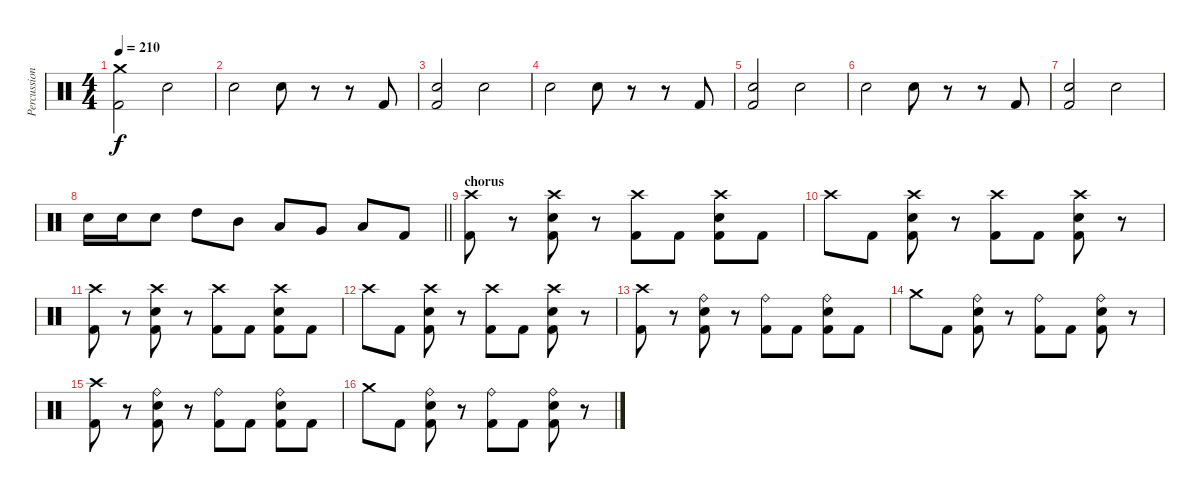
\track ("Percussion" "Percussion") {instrument percussion}
\staff {score}
\articulation defaults
\ts (4 4)
\tempo 210
\clef neutral
\ks c
("Crash medium (hit)" "Kick (hit) 2").2{dy f} "Electric Snare (hit)".2 |
"Electric Snare (hit)".2 "Electric Snare (hit)".8 r.8 r.8 "Kick (hit) 2".8 |
("Electric Snare (hit)" "Kick (hit) 2").2 "Electric Snare (hit)".2 |
"Electric Snare (hit)".2 "Electric Snare (hit)".8 r.8 r.8 "Kick (hit) 2".8 |
("Electric Snare (hit)" "Kick (hit) 2").2 "Electric Snare (hit)".2 |
"Electric Snare (hit)".2 "Electric Snare (hit)".8 r.8 r.8 "Kick (hit) 2".8 |
("Electric Snare (hit)" "Kick (hit) 2").2 "Electric Snare (hit)".2 |
\barLineRight lightlight "Electric Snare (hit)".16 "Electric Snare (hit)".16 "Electric Snare (hit)".8 "High Tom (hit)".8 "Mid Tom (hit)".8 "Low Tom (hit)".8 "Very Low Tom (hit)".8 "Low Floor Tom (hit)".8 "Kick (hit) 2".8
|
\section ("" "chorus")
("Kick (hit) 2" "Crash high (hit)").8 r.8 ("Kick (hit) 2" "Electric Snare (hit)" "Crash high (hit)").8 r.8 ("Kick (hit) 2" "Crash high (hit)").8 "Kick (hit) 2".8 ("Kick (hit) 2" "Electric Snare (hit)" "Crash high (hit)").8 "Kick (hit) 2".8 |
"Crash high (hit)".8 "Kick (hit) 2".8 ("Kick (hit) 2" "Electric Snare (hit)" "Crash high (hit)").8 r.8 ("Kick (hit) 2" "Crash high (hit)").8 "Kick (hit) 2".8 ("Kick (hit) 2" "Electric Snare (hit)" "Crash high (hit)").8 r.8 |
("Kick (hit) 2" "Crash high (hit)").8 r.8 ("Kick (hit) 2" "Electric Snare (hit)" "Crash high (hit)").8 r.8 ("Kick (hit) 2" "Crash high (hit)").8 "Kick (hit) 2".8 ("Kick (hit) 2" "Electric Snare (hit)" "Crash high (hit)").8 "Kick (hit) 2".8 |
"Crash high (hit)".8 "Kick (hit) 2".8 ("Kick (hit) 2" "Electric Snare (hit)" "Crash high (hit)").8 r.8 ("Kick (hit) 2" "Crash high (hit)").8 "Kick (hit) 2".8 ("Kick (hit) 2" "Electric Snare (hit)" "Crash high (hit)").8 r.8 |
("Kick (hit) 2" "Crash high (hit)").8 r.8 ("Kick (hit) 2" "Electric Snare (hit)" "Ride (bell)").8 r.8 ("Kick (hit) 2" "Ride (bell)").8 "Kick (hit) 2".8 ("Kick (hit) 2" "Electric Snare (hit)" "Ride (bell)").8 "Kick (hit) 2".8 |
"Crash medium (hit)".8 "Kick (hit) 2".8 ("Kick (hit) 2" "Electric Snare (hit)" "Ride (bell)").8 r.8 ("Kick (hit) 2" "Ride (bell)").8 "Kick (hit) 2".8 ("Kick (hit) 2" "Electric Snare (hit)" "Ride (bell)").8 r.8 |
("Kick (hit) 2" "Crash high (hit)").8 r.8 ("Kick (hit) 2" "Electric Snare (hit)" "Ride (bell)").8 r.8 ("Kick (hit) 2" "Ride (bell)").8 "Kick (hit) 2".8 ("Kick (hit) 2" "Electric Snare (hit)" "Ride (bell)").8 "Kick (hit) 2".8 |
"Crash medium (hit)".8 "Kick (hit) 2".8 ("Kick (hit) 2" "Electric Snare (hit)" "Ride (bell)").8 r.8 ("Kick (hit) 2" "Ride (bell)").8 "Kick (hit) 2".8 ("Kick (hit) 2" "Electric Snare (hit)" "Ride (bell)").8 r.8
